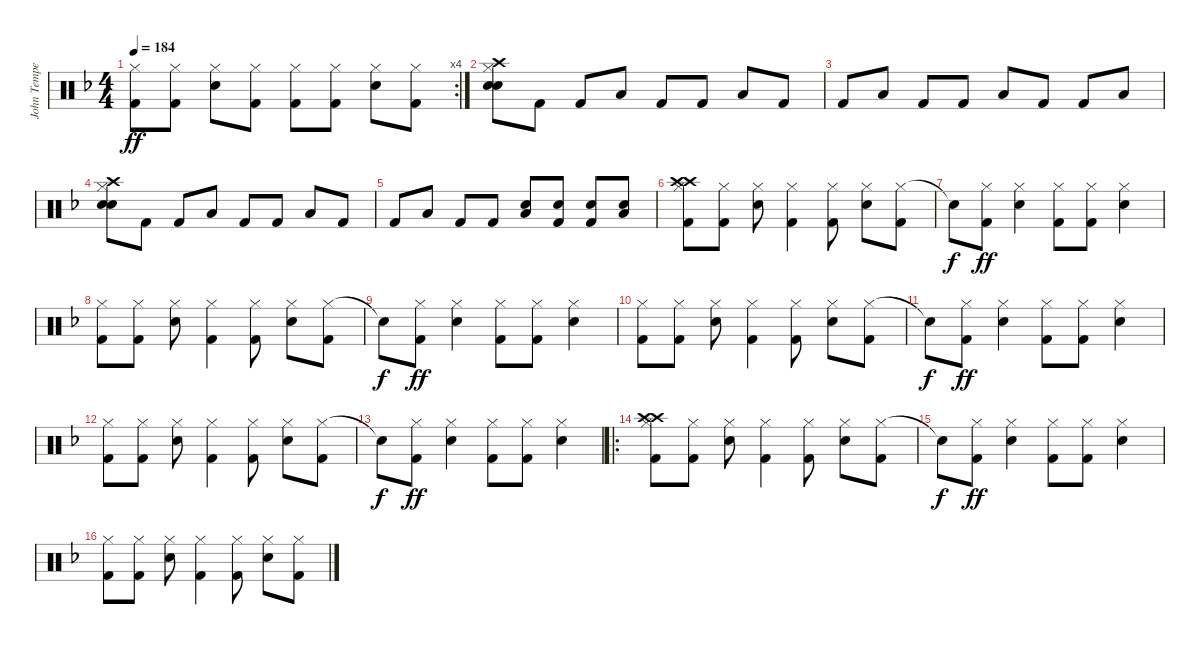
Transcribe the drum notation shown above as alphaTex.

\track ("John Tempesta " "John Tempe") {instrument percussion}
\staff {score}
\articulation defaults
\rc 4
\ts (4 4)
\tempo 184
\clef neutral
\ks f
("Hi-Hat (closed)" "Kick (hit) 2").8{dy ff} ("Hi-Hat (closed)" "Kick (hit) 2").8 ("Hi-Hat (closed)" "Electric Snare (hit)").8 ("Hi-Hat (closed)" "Kick (hit) 2").8 ("Hi-Hat (closed)" "Kick (hit) 2").8 ("Hi-Hat (closed)" "Kick (hit) 2").8 ("Hi-Hat (closed)" "Electric Snare (hit)").8 ("Hi-Hat (closed)" "Kick (hit) 2").8 |
("Crash high (hit)" "Electric Snare (hit)" "Electric Snare (hit)" "Hi-Hat (closed)").8 "Kick (hit) 2".8 "Kick (hit) 2".8 "Low Floor Tom (hit)".8 "Kick (hit) 2".8 "Kick (hit) 2".8 "Low Floor Tom (hit)".8 "Kick (hit) 2".8 |
"Kick (hit) 2".8 "Low Floor Tom (hit)".8 "Kick (hit) 2".8 "Kick (hit) 2".8 "Low Floor Tom (hit)".8 "Kick (hit) 2".8 "Kick (hit) 2".8 "Low Floor Tom (hit)".8 |
("Crash high (hit)" "Electric Snare (hit)" "Electric Snare (hit)" "Hi-Hat (closed)").8 "Kick (hit) 2".8 "Kick (hit) 2".8 "Low Floor Tom (hit)".8 "Kick (hit) 2".8 "Kick (hit) 2".8 "Low Floor Tom (hit)".8 "Kick (hit) 2".8 |
"Kick (hit) 2".8 "Low Floor Tom (hit)".8 "Kick (hit) 2".8 "Kick (hit) 2".8 ("Electric Snare (hit)" "Low Floor Tom (hit)").8 ("Electric Snare (hit)" "Kick (hit) 2").8 ("Electric Snare (hit)" "Kick (hit) 2").8 ("Electric Snare (hit)" "Low Floor Tom (hit)").8 |
("Hi-Hat (closed)" "Kick (hit) 2" "Crash high (hit)" "Crash high (hit)").8 ("Hi-Hat (closed)" "Kick (hit) 2").8 ("Hi-Hat (closed)" "Electric Snare (hit)").8 ("Hi-Hat (closed)" "Kick (hit) 2").4 ("Hi-Hat (closed)" "Kick (hit) 2").8 ("Hi-Hat (closed)" "Electric Snare (hit)").8 ("Hi-Hat (closed)" "Kick (hit) 2").8 |
"Snare (hit)"{t}.8{dy f} ("Hi-Hat (closed)" "Kick (hit) 2").8{dy ff} ("Hi-Hat (closed)" "Electric Snare (hit)").4 ("Hi-Hat (closed)" "Kick (hit) 2").8 ("Hi-Hat (closed)" "Kick (hit) 2").8 ("Hi-Hat (closed)" "Electric Snare (hit)").4 |
("Hi-Hat (closed)" "Kick (hit) 2").8 ("Hi-Hat (closed)" "Kick (hit) 2").8 ("Hi-Hat (closed)" "Electric Snare (hit)").8 ("Hi-Hat (closed)" "Kick (hit) 2").4 ("Hi-Hat (closed)" "Kick (hit) 2").8 ("Hi-Hat (closed)" "Electric Snare (hit)").8 ("Hi-Hat (closed)" "Kick (hit) 2").8 |
"Snare (hit)"{t}.8{dy f} ("Hi-Hat (closed)" "Kick (hit) 2").8{dy ff} ("Hi-Hat (closed)" "Electric Snare (hit)").4 ("Hi-Hat (closed)" "Kick (hit) 2").8 ("Hi-Hat (closed)" "Kick (hit) 2").8 ("Hi-Hat (closed)" "Electric Snare (hit)").4 |
("Hi-Hat (closed)" "Kick (hit) 2").8 ("Hi-Hat (closed)" "Kick (hit) 2").8 ("Hi-Hat (closed)" "Electric Snare (hit)").8 ("Hi-Hat (closed)" "Kick (hit) 2").4 ("Hi-Hat (closed)" "Kick (hit) 2").8 ("Hi-Hat (closed)" "Electric Snare (hit)").8 ("Hi-Hat (closed)" "Kick (hit) 2").8 |
"Snare (hit)"{t}.8{dy f} ("Hi-Hat (closed)" "Kick (hit) 2").8{dy ff} ("Hi-Hat (closed)" "Electric Snare (hit)").4 ("Hi-Hat (closed)" "Kick (hit) 2").8 ("Hi-Hat (closed)" "Kick (hit) 2").8 ("Hi-Hat (closed)" "Electric Snare (hit)").4 |
("Hi-Hat (closed)" "Kick (hit) 2").8 ("Hi-Hat (closed)" "Kick (hit) 2").8 ("Hi-Hat (closed)" "Electric Snare (hit)").8 ("Hi-Hat (closed)" "Kick (hit) 2").4 ("Hi-Hat (closed)" "Kick (hit) 2").8 ("Hi-Hat (closed)" "Electric Snare (hit)").8 ("Hi-Hat (closed)" "Kick (hit) 2").8 |
"Snare (hit)"{t}.8{dy f} ("Hi-Hat (closed)" "Kick (hit) 2").8{dy ff} ("Hi-Hat (closed)" "Electric Snare (hit)").4 ("Hi-Hat (closed)" "Kick (hit) 2").8 ("Hi-Hat (closed)" "Kick (hit) 2").8 ("Hi-Hat (closed)" "Electric Snare (hit)").4 |
\ro
("Hi-Hat (closed)" "Kick (hit) 2" "Crash high (hit)" "Crash high (hit)").8 ("Hi-Hat (closed)" "Kick (hit) 2").8 ("Hi-Hat (closed)" "Electric Snare (hit)").8 ("Hi-Hat (closed)" "Kick (hit) 2").4 ("Hi-Hat (closed)" "Kick (hit) 2").8 ("Hi-Hat (closed)" "Electric Snare (hit)").8 ("Hi-Hat (closed)" "Kick (hit) 2").8 |
"Snare (hit)"{t}.8{dy f} ("Hi-Hat (closed)" "Kick (hit) 2").8{dy ff} ("Hi-Hat (closed)" "Electric Snare (hit)").4 ("Hi-Hat (closed)" "Kick (hit) 2").8 ("Hi-Hat (closed)" "Kick (hit) 2").8 ("Hi-Hat (closed)" "Electric Snare (hit)").4 |
("Hi-Hat (closed)" "Kick (hit) 2").8 ("Hi-Hat (closed)" "Kick (hit) 2").8 ("Hi-Hat (closed)" "Electric Snare (hit)").8 ("Hi-Hat (closed)" "Kick (hit) 2").4 ("Hi-Hat (closed)" "Kick (hit) 2").8 ("Hi-Hat (closed)" "Electric Snare (hit)").8 ("Hi-Hat (closed)" "Kick (hit) 2").8
